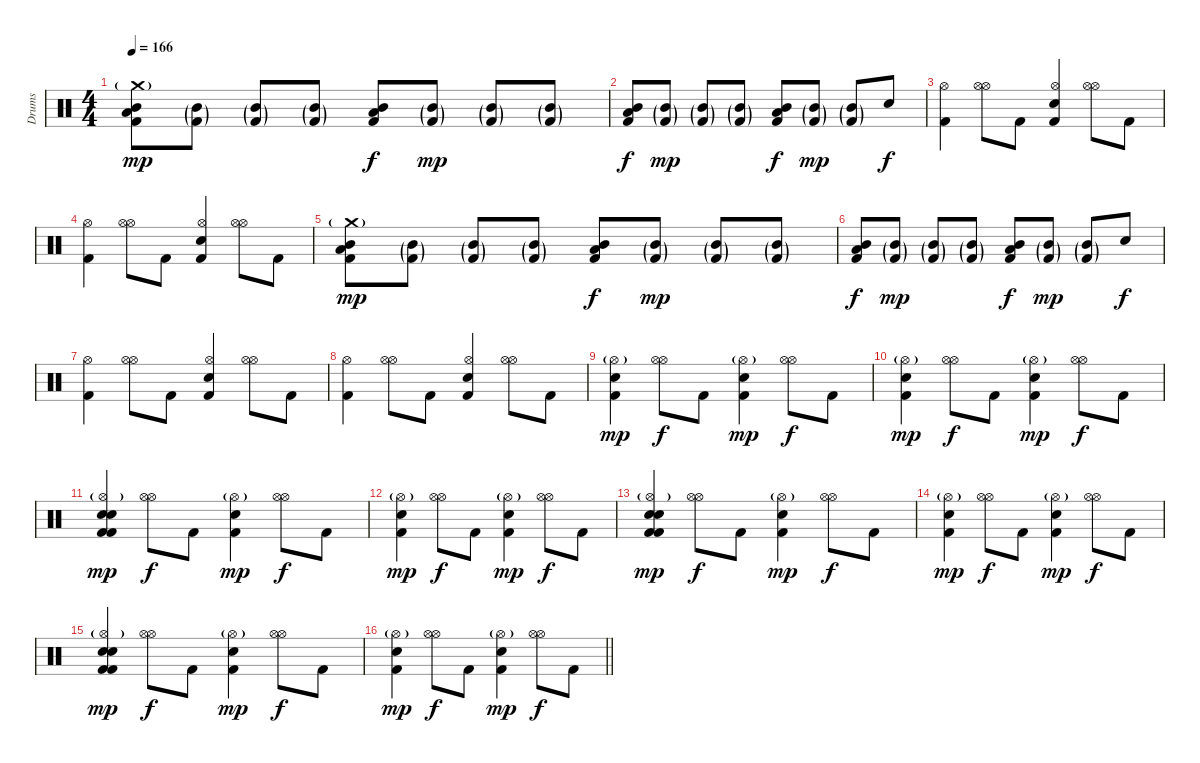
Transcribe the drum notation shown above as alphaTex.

\track ("Drums" "Drums") {instrument percussion}
\staff {score}
\articulation defaults
\ts (4 4)
\tempo 166
\clef neutral
\ks c
("Crash medium (hit)"{g} "Low Floor Tom (hit)" "Kick (hit) 2" "Mid Tom (hit)").8{dy mp} ("Kick (hit) 2"{g} "Mid Tom (hit)"{g}).8 ("Kick (hit) 2"{g} "Mid Tom (hit)"{g}).8 ("Kick (hit) 2"{g} "Mid Tom (hit)"{g}).8 ("Low Floor Tom (hit)" "Kick (hit) 2" "Mid Tom (hit)").8{dy f} ("Kick (hit) 2"{g} "Mid Tom (hit)"{g}).8{dy mp} ("Kick (hit) 2"{g} "Mid Tom (hit)"{g}).8 ("Kick (hit) 2"{g} "Mid Tom (hit)"{g}).8 |
("Low Floor Tom (hit)" "Kick (hit) 2" "Mid Tom (hit)").8{dy f} ("Kick (hit) 2"{g} "Mid Tom (hit)"{g}).8{dy mp} ("Kick (hit) 2"{g} "Mid Tom (hit)"{g}).8 ("Kick (hit) 2"{g} "Mid Tom (hit)"{g}).8 ("Low Floor Tom (hit)" "Kick (hit) 2" "Mid Tom (hit)").8{dy f} ("Kick (hit) 2"{g} "Mid Tom (hit)"{g}).8{dy mp} ("Kick (hit) 2"{g} "Mid Tom (hit)"{g}).8 "Snare (hit) 2".8{dy f} |
("Hi-Hat (open)" "Kick (hit) 2").4 ("Hi-Hat (open)" "Hi-Hat (open)").8 "Kick (hit) 2".8 ("Hi-Hat (open)" "Kick (hit) 2" "Electric Snare (hit)").4 ("Hi-Hat (open)" "Hi-Hat (open)").8 "Kick (hit) 2".8 |
("Hi-Hat (open)" "Kick (hit) 2").4 ("Hi-Hat (open)" "Hi-Hat (open)").8 "Kick (hit) 2".8 ("Hi-Hat (open)" "Kick (hit) 2" "Electric Snare (hit)").4 ("Hi-Hat (open)" "Hi-Hat (open)").8 "Kick (hit) 2".8 |
("Crash medium (hit)"{g} "Low Floor Tom (hit)" "Kick (hit) 2" "Mid Tom (hit)").8{dy mp} ("Kick (hit) 2"{g} "Mid Tom (hit)"{g}).8 ("Kick (hit) 2"{g} "Mid Tom (hit)"{g}).8 ("Kick (hit) 2"{g} "Mid Tom (hit)"{g}).8 ("Low Floor Tom (hit)" "Kick (hit) 2" "Mid Tom (hit)").8{dy f} ("Kick (hit) 2"{g} "Mid Tom (hit)"{g}).8{dy mp} ("Kick (hit) 2"{g} "Mid Tom (hit)"{g}).8 ("Kick (hit) 2"{g} "Mid Tom (hit)"{g}).8 |
("Low Floor Tom (hit)" "Kick (hit) 2" "Mid Tom (hit)").8{dy f} ("Kick (hit) 2"{g} "Mid Tom (hit)"{g}).8{dy mp} ("Kick (hit) 2"{g} "Mid Tom (hit)"{g}).8 ("Kick (hit) 2"{g} "Mid Tom (hit)"{g}).8 ("Low Floor Tom (hit)" "Kick (hit) 2" "Mid Tom (hit)").8{dy f} ("Kick (hit) 2"{g} "Mid Tom (hit)"{g}).8{dy mp} ("Kick (hit) 2"{g} "Mid Tom (hit)"{g}).8 "Snare (hit) 2".8{dy f} |
("Hi-Hat (open)" "Kick (hit) 2").4 ("Hi-Hat (open)" "Hi-Hat (open)").8 "Kick (hit) 2".8 ("Hi-Hat (open)" "Kick (hit) 2" "Electric Snare (hit)").4 ("Hi-Hat (open)" "Hi-Hat (open)").8 "Kick (hit) 2".8 |
("Hi-Hat (open)" "Kick (hit) 2").4 ("Hi-Hat (open)" "Hi-Hat (open)").8 "Kick (hit) 2".8 ("Hi-Hat (open)" "Kick (hit) 2" "Electric Snare (hit)").4 ("Hi-Hat (open)" "Hi-Hat (open)").8 "Kick (hit) 2".8 |
("Hi-Hat (open)"{g} "Kick (hit) 2" "Snare (hit) 2").4{dy mp} ("Hi-Hat (open)" "Hi-Hat (open)").8{dy f} "Kick (hit) 2".8 ("Hi-Hat (open)"{g} "Kick (hit) 2" "Snare (hit) 2").4{dy mp} ("Hi-Hat (open)" "Hi-Hat (open)").8{dy f} "Kick (hit) 2".8 |
("Hi-Hat (open)"{g} "Kick (hit) 2" "Snare (hit) 2").4{dy mp} ("Hi-Hat (open)" "Hi-Hat (open)").8{dy f} "Kick (hit) 2".8 ("Hi-Hat (open)"{g} "Kick (hit) 2" "Snare (hit) 2").4{dy mp} ("Hi-Hat (open)" "Hi-Hat (open)").8{dy f} "Kick (hit) 2".8 |
("Kick (hit) 2" "Electric Snare (hit)" "Hi-Hat (open)"{g} "Kick (hit) 2" "Snare (hit) 2").4{dy mp} ("Hi-Hat (open)" "Hi-Hat (open)").8{dy f} "Kick (hit) 2".8 ("Hi-Hat (open)"{g} "Kick (hit) 2" "Snare (hit) 2").4{dy mp} ("Hi-Hat (open)" "Hi-Hat (open)").8{dy f} "Kick (hit) 2".8 |
("Hi-Hat (open)"{g} "Kick (hit) 2" "Snare (hit) 2").4{dy mp} ("Hi-Hat (open)" "Hi-Hat (open)").8{dy f} "Kick (hit) 2".8 ("Hi-Hat (open)"{g} "Kick (hit) 2" "Snare (hit) 2").4{dy mp} ("Hi-Hat (open)" "Hi-Hat (open)").8{dy f} "Kick (hit) 2".8 |
("Kick (hit) 2" "Electric Snare (hit)" "Hi-Hat (open)"{g} "Kick (hit) 2" "Snare (hit) 2").4{dy mp} ("Hi-Hat (open)" "Hi-Hat (open)").8{dy f} "Kick (hit) 2".8 ("Hi-Hat (open)"{g} "Kick (hit) 2" "Snare (hit) 2").4{dy mp} ("Hi-Hat (open)" "Hi-Hat (open)").8{dy f} "Kick (hit) 2".8 |
("Hi-Hat (open)"{g} "Kick (hit) 2" "Snare (hit) 2").4{dy mp} ("Hi-Hat (open)" "Hi-Hat (open)").8{dy f} "Kick (hit) 2".8 ("Hi-Hat (open)"{g} "Kick (hit) 2" "Snare (hit) 2").4{dy mp} ("Hi-Hat (open)" "Hi-Hat (open)").8{dy f} "Kick (hit) 2".8 |
("Kick (hit) 2" "Electric Snare (hit)" "Hi-Hat (open)"{g} "Kick (hit) 2" "Snare (hit) 2").4{dy mp} ("Hi-Hat (open)" "Hi-Hat (open)").8{dy f} "Kick (hit) 2".8 ("Hi-Hat (open)"{g} "Kick (hit) 2" "Snare (hit) 2").4{dy mp} ("Hi-Hat (open)" "Hi-Hat (open)").8{dy f} "Kick (hit) 2".8 |
\barLineRight lightlight
("Hi-Hat (open)"{g} "Kick (hit) 2" "Snare (hit) 2").4{dy mp} ("Hi-Hat (open)" "Hi-Hat (open)").8{dy f} "Kick (hit) 2".8 ("Hi-Hat (open)"{g} "Kick (hit) 2" "Snare (hit) 2").4{dy mp} ("Hi-Hat (open)" "Hi-Hat (open)").8{dy f} "Kick (hit) 2".8
